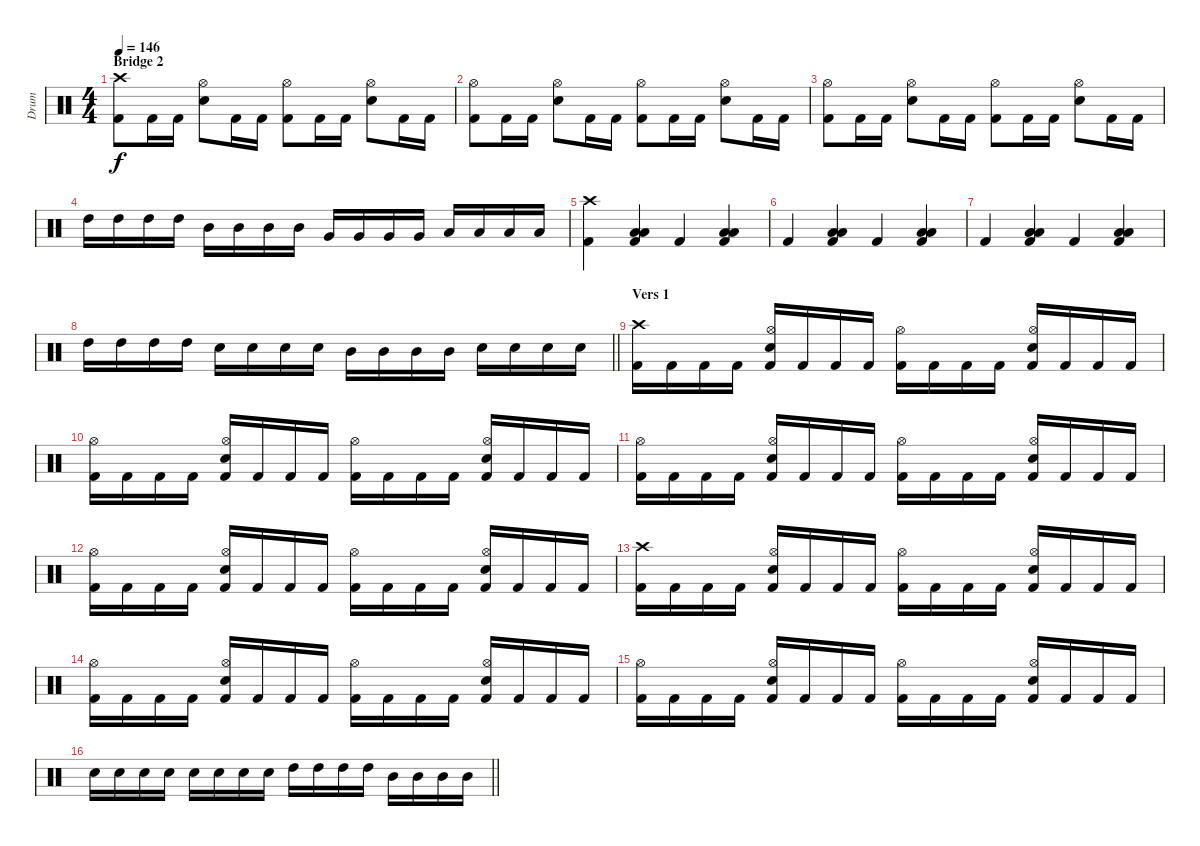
\track ("Drum" "Drum") {instrument percussion}
\staff {score}
\articulation defaults
\ts (4 4)
\section ("" "Bridge 2")
\tempo 146
\clef neutral
\ks c
("Crash high (hit)" "Kick (hit) 2").8{dy f} "Kick (hit) 2".16 "Kick (hit) 2".16 ("Hi-Hat (open)" "Electric Snare (hit)").8 "Kick (hit) 2".16 "Kick (hit) 2".16 ("Hi-Hat (open)" "Kick (hit) 2").8 "Kick (hit) 2".16 "Kick (hit) 2".16 ("Hi-Hat (open)" "Electric Snare (hit)").8 "Kick (hit) 2".16 "Kick (hit) 2".16 |
("Hi-Hat (open)" "Kick (hit) 2").8 "Kick (hit) 2".16 "Kick (hit) 2".16 ("Hi-Hat (open)" "Electric Snare (hit)").8 "Kick (hit) 2".16 "Kick (hit) 2".16 ("Hi-Hat (open)" "Kick (hit) 2").8 "Kick (hit) 2".16 "Kick (hit) 2".16 ("Hi-Hat (open)" "Electric Snare (hit)").8 "Kick (hit) 2".16 "Kick (hit) 2".16 |
("Hi-Hat (open)" "Kick (hit) 2").8 "Kick (hit) 2".16 "Kick (hit) 2".16 ("Hi-Hat (open)" "Electric Snare (hit)").8 "Kick (hit) 2".16 "Kick (hit) 2".16 ("Hi-Hat (open)" "Kick (hit) 2").8 "Kick (hit) 2".16 "Kick (hit) 2".16 ("Hi-Hat (open)" "Electric Snare (hit)").8 "Kick (hit) 2".16 "Kick (hit) 2".16 |
"High Tom (hit)".16 "High Tom (hit)".16 "High Tom (hit)".16 "High Tom (hit)".16 "Mid Tom (hit)".16 "Mid Tom (hit)".16 "Mid Tom (hit)".16 "Mid Tom (hit)".16 "Very Low Tom (hit)".16 "Very Low Tom (hit)".16 "Very Low Tom (hit)".16 "Very Low Tom (hit)".16 "Low Floor Tom (hit)".16 "Low Floor Tom (hit)".16 "Low Floor Tom (hit)".16 "Low Floor Tom (hit)".16 |
("Crash high (hit)" "Kick (hit) 2").4 ("Low Floor Tom (hit)" "Low Floor Tom (hit)" "Kick (hit) 2").4 "Kick (hit) 2".4 ("Low Floor Tom (hit)" "Low Floor Tom (hit)" "Kick (hit) 2").4 |
"Kick (hit) 2".4 ("Low Floor Tom (hit)" "Low Floor Tom (hit)" "Kick (hit) 2").4 "Kick (hit) 2".4 ("Low Floor Tom (hit)" "Low Floor Tom (hit)" "Kick (hit) 2").4 |
"Kick (hit) 2".4 ("Low Floor Tom (hit)" "Low Floor Tom (hit)" "Kick (hit) 2").4 "Kick (hit) 2".4 ("Low Floor Tom (hit)" "Low Floor Tom (hit)" "Kick (hit) 2").4 |
\barLineRight lightlight "High Tom (hit)".16 "High Tom (hit)".16 "High Tom (hit)".16 "High Tom (hit)".16 "Electric Snare (hit)".16 "Electric Snare (hit)".16 "Electric Snare (hit)".16 "Electric Snare (hit)".16 "Mid Tom (hit)".16 "Mid Tom (hit)".16 "Mid Tom (hit)".16 "Mid Tom (hit)".16 "Electric Snare (hit)".16 "Electric Snare (hit)".16 "Electric Snare (hit)".16 "Electric Snare (hit)".16
|
\section ("" "Vers 1")
("Crash high (hit)" "Kick (hit) 2").16 "Kick (hit) 2".16 "Kick (hit) 2".16 "Kick (hit) 2".16 ("Hi-Hat (open)" "Electric Snare (hit)" "Kick (hit) 2").16 "Kick (hit) 2".16 "Kick (hit) 2".16 "Kick (hit) 2".16 ("Hi-Hat (open)" "Kick (hit) 2").16 "Kick (hit) 2".16 "Kick (hit) 2".16 "Kick (hit) 2".16 ("Hi-Hat (open)" "Electric Snare (hit)" "Kick (hit) 2").16 "Kick (hit) 2".16 "Kick (hit) 2".16 "Kick (hit) 2".16 |
("Hi-Hat (open)" "Kick (hit) 2").16 "Kick (hit) 2".16 "Kick (hit) 2".16 "Kick (hit) 2".16 ("Hi-Hat (open)" "Electric Snare (hit)" "Kick (hit) 2").16 "Kick (hit) 2".16 "Kick (hit) 2".16 "Kick (hit) 2".16 ("Hi-Hat (open)" "Kick (hit) 2").16 "Kick (hit) 2".16 "Kick (hit) 2".16 "Kick (hit) 2".16 ("Hi-Hat (open)" "Electric Snare (hit)" "Kick (hit) 2").16 "Kick (hit) 2".16 "Kick (hit) 2".16 "Kick (hit) 2".16 |
("Hi-Hat (open)" "Kick (hit) 2").16 "Kick (hit) 2".16 "Kick (hit) 2".16 "Kick (hit) 2".16 ("Hi-Hat (open)" "Electric Snare (hit)" "Kick (hit) 2").16 "Kick (hit) 2".16 "Kick (hit) 2".16 "Kick (hit) 2".16 ("Hi-Hat (open)" "Kick (hit) 2").16 "Kick (hit) 2".16 "Kick (hit) 2".16 "Kick (hit) 2".16 ("Hi-Hat (open)" "Electric Snare (hit)" "Kick (hit) 2").16 "Kick (hit) 2".16 "Kick (hit) 2".16 "Kick (hit) 2".16 |
("Hi-Hat (open)" "Kick (hit) 2").16 "Kick (hit) 2".16 "Kick (hit) 2".16 "Kick (hit) 2".16 ("Hi-Hat (open)" "Electric Snare (hit)" "Kick (hit) 2").16 "Kick (hit) 2".16 "Kick (hit) 2".16 "Kick (hit) 2".16 ("Hi-Hat (open)" "Kick (hit) 2").16 "Kick (hit) 2".16 "Kick (hit) 2".16 "Kick (hit) 2".16 ("Hi-Hat (open)" "Electric Snare (hit)" "Kick (hit) 2").16 "Kick (hit) 2".16 "Kick (hit) 2".16 "Kick (hit) 2".16 |
("Crash high (hit)" "Kick (hit) 2").16 "Kick (hit) 2".16 "Kick (hit) 2".16 "Kick (hit) 2".16 ("Hi-Hat (open)" "Electric Snare (hit)" "Kick (hit) 2").16 "Kick (hit) 2".16 "Kick (hit) 2".16 "Kick (hit) 2".16 ("Hi-Hat (open)" "Kick (hit) 2").16 "Kick (hit) 2".16 "Kick (hit) 2".16 "Kick (hit) 2".16 ("Hi-Hat (open)" "Electric Snare (hit)" "Kick (hit) 2").16 "Kick (hit) 2".16 "Kick (hit) 2".16 "Kick (hit) 2".16 |
("Hi-Hat (open)" "Kick (hit) 2").16 "Kick (hit) 2".16 "Kick (hit) 2".16 "Kick (hit) 2".16 ("Hi-Hat (open)" "Electric Snare (hit)" "Kick (hit) 2").16 "Kick (hit) 2".16 "Kick (hit) 2".16 "Kick (hit) 2".16 ("Hi-Hat (open)" "Kick (hit) 2").16 "Kick (hit) 2".16 "Kick (hit) 2".16 "Kick (hit) 2".16 ("Hi-Hat (open)" "Electric Snare (hit)" "Kick (hit) 2").16 "Kick (hit) 2".16 "Kick (hit) 2".16 "Kick (hit) 2".16 |
("Hi-Hat (open)" "Kick (hit) 2").16 "Kick (hit) 2".16 "Kick (hit) 2".16 "Kick (hit) 2".16 ("Hi-Hat (open)" "Electric Snare (hit)" "Kick (hit) 2").16 "Kick (hit) 2".16 "Kick (hit) 2".16 "Kick (hit) 2".16 ("Hi-Hat (open)" "Kick (hit) 2").16 "Kick (hit) 2".16 "Kick (hit) 2".16 "Kick (hit) 2".16 ("Hi-Hat (open)" "Electric Snare (hit)" "Kick (hit) 2").16 "Kick (hit) 2".16 "Kick (hit) 2".16 "Kick (hit) 2".16 |
\barLineRight lightlight "Electric Snare (hit)".16 "Electric Snare (hit)".16 "Electric Snare (hit)".16 "Electric Snare (hit)".16 "Electric Snare (hit)".16 "Electric Snare (hit)".16 "Electric Snare (hit)".16 "Electric Snare (hit)".16 "High Tom (hit)".16 "High Tom (hit)".16 "High Tom (hit)".16 "High Tom (hit)".16 "Mid Tom (hit)".16 "Mid Tom (hit)".16 "Mid Tom (hit)".16 "Mid Tom (hit)".16
